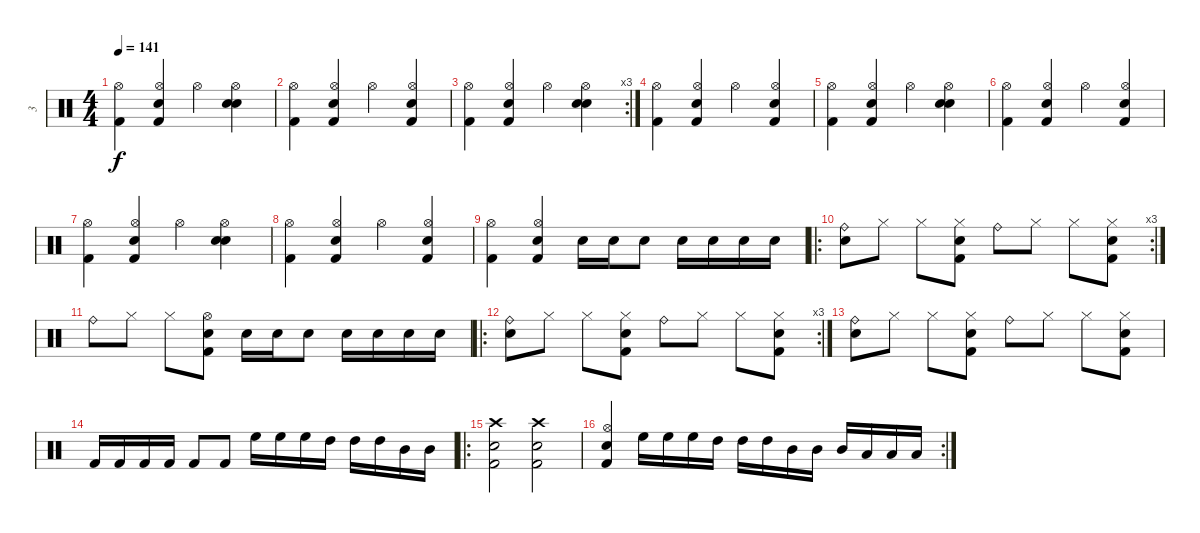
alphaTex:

\track ("3" "3") {instrument percussion}
\staff {score}
\articulation defaults
\ts (4 4)
\tempo 141
\clef neutral
\ks c
("Kick (hit) 2" "Hi-Hat (open)").4{dy f} ("Kick (hit) 2" "Snare (hit) 2" "Hi-Hat (open)").4 "Hi-Hat (open)".4 ("Snare (hit) 2" "Snare (hit) 2" "Hi-Hat (open)").4 |
("Kick (hit) 2" "Hi-Hat (open)").4 ("Kick (hit) 2" "Snare (hit) 2" "Hi-Hat (open)").4 "Hi-Hat (open)".4 ("Kick (hit) 2" "Snare (hit) 2" "Hi-Hat (open)").4 |
\rc 3
("Kick (hit) 2" "Hi-Hat (open)").4 ("Kick (hit) 2" "Snare (hit) 2" "Hi-Hat (open)").4 "Hi-Hat (open)".4 ("Snare (hit) 2" "Snare (hit) 2" "Hi-Hat (open)").4 |
("Kick (hit) 2" "Hi-Hat (open)").4 ("Kick (hit) 2" "Snare (hit) 2" "Hi-Hat (open)").4 "Hi-Hat (open)".4 ("Kick (hit) 2" "Snare (hit) 2" "Hi-Hat (open)").4 |
("Kick (hit) 2" "Hi-Hat (open)").4 ("Kick (hit) 2" "Snare (hit) 2" "Hi-Hat (open)").4 "Hi-Hat (open)".4 ("Snare (hit) 2" "Snare (hit) 2" "Hi-Hat (open)").4 |
("Kick (hit) 2" "Hi-Hat (open)").4 ("Kick (hit) 2" "Snare (hit) 2" "Hi-Hat (open)").4 "Hi-Hat (open)".4 ("Kick (hit) 2" "Snare (hit) 2" "Hi-Hat (open)").4 |
("Kick (hit) 2" "Hi-Hat (open)").4 ("Kick (hit) 2" "Snare (hit) 2" "Hi-Hat (open)").4 "Hi-Hat (open)".4 ("Snare (hit) 2" "Snare (hit) 2" "Hi-Hat (open)").4 |
("Kick (hit) 2" "Hi-Hat (open)").4 ("Kick (hit) 2" "Snare (hit) 2" "Hi-Hat (open)").4 "Hi-Hat (open)".4 ("Kick (hit) 2" "Snare (hit) 2" "Hi-Hat (open)").4 |
("Kick (hit) 2" "Hi-Hat (open)").4 ("Kick (hit) 2" "Snare (hit) 2" "Hi-Hat (open)").4 "Snare (hit) 2".16 "Snare (hit) 2".16 "Snare (hit) 2".8 "Snare (hit) 2".16 "Snare (hit) 2".16 "Snare (hit) 2".16 "Snare (hit) 2".16 |
\ro
\rc 3
("Ride (bell)" "Snare (hit) 2").8 "Hi-Hat (closed)".8 "Hi-Hat (closed)".8 ("Kick (hit) 2" "Hi-Hat (closed)" "Snare (hit) 2").8 "Ride (bell)".8 "Hi-Hat (closed)".8 "Hi-Hat (closed)".8 ("Kick (hit) 2" "Hi-Hat (closed)" "Snare (hit) 2").8 |
"Ride (bell)".8 "Hi-Hat (closed)".8 "Hi-Hat (closed)".8 ("Kick (hit) 2" "Snare (hit) 2" "Hi-Hat (open)").8 "Snare (hit) 2".16 "Snare (hit) 2".16 "Snare (hit) 2".8 "Snare (hit) 2".16 "Snare (hit) 2".16 "Snare (hit) 2".16 "Snare (hit) 2".16 |
\ro
\rc 3
("Ride (bell)" "Snare (hit) 2").8 "Hi-Hat (closed)".8 "Hi-Hat (closed)".8 ("Kick (hit) 2" "Hi-Hat (closed)" "Snare (hit) 2").8 "Ride (bell)".8 "Hi-Hat (closed)".8 "Hi-Hat (closed)".8 ("Kick (hit) 2" "Hi-Hat (closed)" "Snare (hit) 2").8 |
("Ride (bell)" "Snare (hit) 2").8 "Hi-Hat (closed)".8 "Hi-Hat (closed)".8 ("Kick (hit) 2" "Hi-Hat (closed)" "Snare (hit) 2").8 "Ride (bell)".8 "Hi-Hat (closed)".8 "Hi-Hat (closed)".8 ("Kick (hit) 2" "Hi-Hat (closed)" "Snare (hit) 2").8 |
"Kick (hit) 2".16 "Kick (hit) 2".16 "Kick (hit) 2".16 "Kick (hit) 2".16 "Kick (hit) 2".8 "Kick (hit) 2".8 "High Floor Tom (hit)".16 "High Floor Tom (hit)".16 "High Floor Tom (hit)".16 "High Tom (hit)".16 "High Tom (hit)".16 "High Tom (hit)".16 "Mid Tom (hit)".16 "Mid Tom (hit)".16 |
\ro
("Kick (hit) 2" "Snare (hit) 2" "Crash high (hit)").2 ("Kick (hit) 2" "Snare (hit) 2" "Crash high (hit)").2 |
\rc 2
("Snare (hit) 2" "Kick (hit) 2" "Hi-Hat (open)").4 "High Floor Tom (hit)".16 "High Floor Tom (hit)".16 "High Floor Tom (hit)".16 "High Tom (hit)".16 "High Tom (hit)".16 "High Tom (hit)".16 "Mid Tom (hit)".16 "Mid Tom (hit)".16 "Mid Tom (hit)".16 "Low Tom (hit)".16 "Low Tom (hit)".16 "Low Tom (hit)".16
